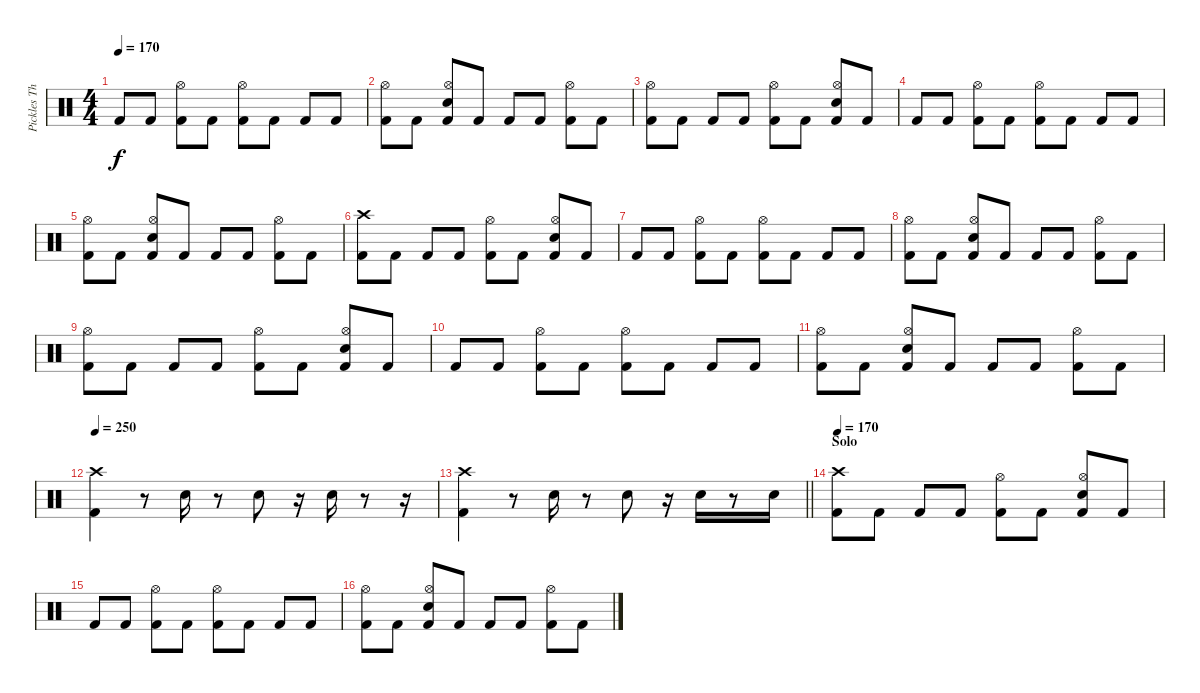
\track ("Pickles The Drummer" "Pickles Th") {instrument percussion}
\staff {score}
\articulation defaults
\ts (4 4)
\tempo 170
\clef neutral
\ks c "Kick (hit) 2".8{dy f} "Kick (hit) 2".8
("Kick (hit) 2" "Hi-Hat (open)").8 "Kick (hit) 2".8 ("Kick (hit) 2" "Hi-Hat (open)").8 "Kick (hit) 2".8 "Kick (hit) 2".8 "Kick (hit) 2".8 |
("Kick (hit) 2" "Hi-Hat (open)").8 "Kick (hit) 2".8 ("Kick (hit) 2" "Hi-Hat (open)" "Snare (hit) 2").8 "Kick (hit) 2".8 "Kick (hit) 2".8 "Kick (hit) 2".8 ("Kick (hit) 2" "Hi-Hat (open)").8 "Kick (hit) 2".8 |
("Kick (hit) 2" "Hi-Hat (open)").8 "Kick (hit) 2".8 "Kick (hit) 2".8 "Kick (hit) 2".8 ("Kick (hit) 2" "Hi-Hat (open)").8 "Kick (hit) 2".8 ("Kick (hit) 2" "Hi-Hat (open)" "Snare (hit) 2").8 "Kick (hit) 2".8 |
"Kick (hit) 2".8 "Kick (hit) 2".8 ("Kick (hit) 2" "Hi-Hat (open)").8 "Kick (hit) 2".8 ("Kick (hit) 2" "Hi-Hat (open)").8 "Kick (hit) 2".8 "Kick (hit) 2".8 "Kick (hit) 2".8 |
("Kick (hit) 2" "Hi-Hat (open)").8 "Kick (hit) 2".8 ("Kick (hit) 2" "Hi-Hat (open)" "Snare (hit) 2").8 "Kick (hit) 2".8 "Kick (hit) 2".8 "Kick (hit) 2".8 ("Kick (hit) 2" "Hi-Hat (open)").8 "Kick (hit) 2".8 |
("Kick (hit) 2" "Crash high (hit)").8 "Kick (hit) 2".8 "Kick (hit) 2".8 "Kick (hit) 2".8 ("Kick (hit) 2" "Hi-Hat (open)").8 "Kick (hit) 2".8 ("Kick (hit) 2" "Hi-Hat (open)" "Snare (hit) 2").8 "Kick (hit) 2".8 |
"Kick (hit) 2".8 "Kick (hit) 2".8 ("Kick (hit) 2" "Hi-Hat (open)").8 "Kick (hit) 2".8 ("Kick (hit) 2" "Hi-Hat (open)").8 "Kick (hit) 2".8 "Kick (hit) 2".8 "Kick (hit) 2".8 |
("Kick (hit) 2" "Hi-Hat (open)").8 "Kick (hit) 2".8 ("Kick (hit) 2" "Hi-Hat (open)" "Snare (hit) 2").8 "Kick (hit) 2".8 "Kick (hit) 2".8 "Kick (hit) 2".8 ("Kick (hit) 2" "Hi-Hat (open)").8 "Kick (hit) 2".8 |
("Kick (hit) 2" "Hi-Hat (open)").8 "Kick (hit) 2".8 "Kick (hit) 2".8 "Kick (hit) 2".8 ("Kick (hit) 2" "Hi-Hat (open)").8 "Kick (hit) 2".8 ("Kick (hit) 2" "Hi-Hat (open)" "Snare (hit) 2").8 "Kick (hit) 2".8 |
"Kick (hit) 2".8 "Kick (hit) 2".8 ("Kick (hit) 2" "Hi-Hat (open)").8 "Kick (hit) 2".8 ("Kick (hit) 2" "Hi-Hat (open)").8 "Kick (hit) 2".8 "Kick (hit) 2".8 "Kick (hit) 2".8 |
("Kick (hit) 2" "Hi-Hat (open)").8 "Kick (hit) 2".8 ("Kick (hit) 2" "Hi-Hat (open)" "Snare (hit) 2").8 "Kick (hit) 2".8 "Kick (hit) 2".8 "Kick (hit) 2".8 ("Kick (hit) 2" "Hi-Hat (open)").8 "Kick (hit) 2".8 |
\tempo 250
("Kick (hit) 2" "Crash high (hit)").4 r.8 "Snare (hit) 2".16 r.8 "Snare (hit) 2".8 r.16 "Snare (hit) 2".16 r.8 r.16 |
\barLineRight lightlight
("Kick (hit) 2" "Crash high (hit)").4 r.8 "Snare (hit) 2".16 r.8 "Snare (hit) 2".8 r.16 "Snare (hit) 2".16 r.8 "Snare (hit) 2".16 |
\section ("" "Solo")
\tempo 170
("Kick (hit) 2" "Crash high (hit)").8 "Kick (hit) 2".8 "Kick (hit) 2".8 "Kick (hit) 2".8 ("Kick (hit) 2" "Hi-Hat (open)").8 "Kick (hit) 2".8 ("Kick (hit) 2" "Hi-Hat (open)" "Snare (hit) 2").8 "Kick (hit) 2".8 |
"Kick (hit) 2".8 "Kick (hit) 2".8 ("Kick (hit) 2" "Hi-Hat (open)").8 "Kick (hit) 2".8 ("Kick (hit) 2" "Hi-Hat (open)").8 "Kick (hit) 2".8 "Kick (hit) 2".8 "Kick (hit) 2".8 |
("Kick (hit) 2" "Hi-Hat (open)").8 "Kick (hit) 2".8 ("Kick (hit) 2" "Hi-Hat (open)" "Snare (hit) 2").8 "Kick (hit) 2".8 "Kick (hit) 2".8 "Kick (hit) 2".8 ("Kick (hit) 2" "Hi-Hat (open)").8 "Kick (hit) 2".8
